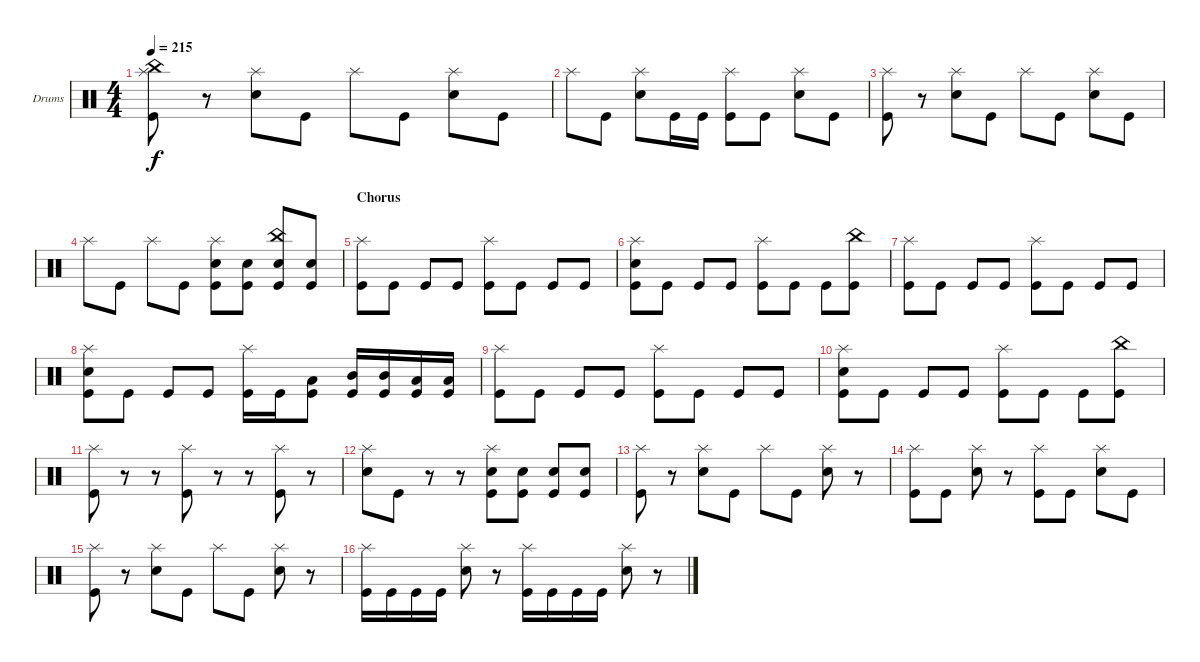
\defaultSystemsLayout 4
\bracketExtendMode groupsimilarinstruments
\firstSystemTrackNameOrientation horizontal
\otherSystemsTrackNameOrientation horizontal
\track ("Drumkit" "Drums") {instrument percussion}
\staff {score}
\articulation defaults
\ts (4 4)
\tempo 215
\clef neutral
\ks c
("Splash (hit)" "Kick (hit)" "China (hit)").8{dy f} r.8 ("Splash (hit)" "Snare (hit) 2").8 "Kick (hit)".8 "Splash (hit)".8 "Kick (hit)".8 ("Splash (hit)" "Snare (hit) 2").8 "Kick (hit)".8 |
"Splash (hit)".8 "Kick (hit)".8 ("Splash (hit)" "Snare (hit) 2").8 "Kick (hit)".16 "Kick (hit)".16 ("Splash (hit)" "Kick (hit)").8 "Kick (hit)".8 ("Splash (hit)" "Snare (hit) 2").8 "Kick (hit)".8 |
("Splash (hit)" "Kick (hit)").8 r.8 ("Splash (hit)" "Snare (hit) 2").8 "Kick (hit)".8 "Splash (hit)".8 "Kick (hit)".8 ("Splash (hit)" "Snare (hit) 2").8 "Kick (hit)".8 |
"Splash (hit)".8 "Kick (hit)".8 "Splash (hit)".8 "Kick (hit)".8 ("Splash (hit)" "Kick (hit)" "Snare (hit) 2").8 ("Kick (hit)" "Snare (hit) 2").8 ("Kick (hit)" "Snare (hit) 2" "China (hit)").8 ("Kick (hit)" "Snare (hit) 2").8 |
\section ("" "Chorus")
("Kick (hit)" "Splash (hit)").8 "Kick (hit)".8 "Kick (hit)".8 "Kick (hit)".8 ("Kick (hit)" "Splash (hit)").8 "Kick (hit)".8 "Kick (hit)".8 "Kick (hit)".8 |
("Kick (hit)" "Splash (hit)" "Snare (hit) 2").8 "Kick (hit)".8 "Kick (hit)".8 "Kick (hit)".8 ("Kick (hit)" "Splash (hit)").8 "Kick (hit)".8 "Kick (hit)".8 ("Kick (hit)" "China (hit)").8 |
("Kick (hit)" "Splash (hit)").8 "Kick (hit)".8 "Kick (hit)".8 "Kick (hit)".8 ("Kick (hit)" "Splash (hit)").8 "Kick (hit)".8 "Kick (hit)".8 "Kick (hit)".8 |
("Kick (hit)" "Splash (hit)" "Snare (hit) 2").8 "Kick (hit)".8 "Kick (hit)".8 "Kick (hit)".8 ("Kick (hit)" "Splash (hit)").16 "Kick (hit)".16 ("Kick (hit)" "Low Tom (hit)").8 ("Kick (hit)" "Mid Tom (hit)").16 ("Kick (hit)" "Mid Tom (hit)").16 ("Kick (hit)" "Low Tom (hit)").16 ("Kick (hit)" "Low Tom (hit)").16 |
("Kick (hit)" "Splash (hit)").8 "Kick (hit)".8 "Kick (hit)".8 "Kick (hit)".8 ("Kick (hit)" "Splash (hit)").8 "Kick (hit)".8 "Kick (hit)".8 "Kick (hit)".8 |
("Kick (hit)" "Splash (hit)" "Snare (hit) 2").8 "Kick (hit)".8 "Kick (hit)".8 "Kick (hit)".8 ("Kick (hit)" "Splash (hit)").8 "Kick (hit)".8 "Kick (hit)".8 ("Kick (hit)" "China (hit)").8 |
("Kick (hit)" "Splash (hit)").8 r.8 r.8 ("Kick (hit)" "Splash (hit)").8 r.8 r.8 ("Kick (hit)" "Splash (hit)").8 r.8 |
("Splash (hit)" "Snare (hit) 2").8 "Kick (hit)".8 r.8 r.8 ("Kick (hit)" "Splash (hit)" "Snare (hit) 2").8 ("Kick (hit)" "Snare (hit) 2").8 ("Kick (hit)" "Snare (hit) 2").8 ("Kick (hit)" "Snare (hit) 2").8 |
("Splash (hit)" "Kick (hit)").8 r.8 ("Splash (hit)" "Snare (hit) 2").8 "Kick (hit)".8 "Splash (hit)".8 "Kick (hit)".8 ("Splash (hit)" "Snare (hit) 2").8 r.8 |
("Splash (hit)" "Kick (hit)").8 "Kick (hit)".8 ("Splash (hit)" "Snare (hit) 2").8 r.8 ("Splash (hit)" "Kick (hit)").8 "Kick (hit)".8 ("Splash (hit)" "Snare (hit) 2").8 "Kick (hit)".8 |
("Splash (hit)" "Kick (hit)").8 r.8 ("Splash (hit)" "Snare (hit) 2").8 "Kick (hit)".8 "Splash (hit)".8 "Kick (hit)".8 ("Splash (hit)" "Snare (hit) 2").8 r.8 |
("Splash (hit)" "Kick (hit)").16 "Kick (hit)".16 "Kick (hit)".16 "Kick (hit)".16 ("Splash (hit)" "Snare (hit) 2").8 r.8 ("Splash (hit)" "Kick (hit)").16 "Kick (hit)".16 "Kick (hit)".16 "Kick (hit)".16 ("Splash (hit)" "Snare (hit) 2").8 r.8
